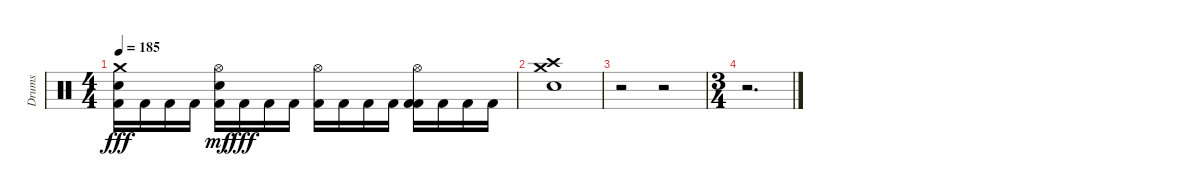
\track ("Drums" "Drums") {instrument percussion}
\staff {score}
\articulation defaults
\ts (4 4)
\tempo 185
\clef neutral
\ks c
("Crash medium (hit)" "Electric Snare (hit)" "Kick (hit) 2").16{dy fff} "Kick (hit) 2".16 "Kick (hit) 2".16 "Kick (hit) 2".16 ("Hi-Hat (open)" "Electric Snare (hit)" "Kick (hit) 2").16{dy mf} "Kick (hit) 2".16{dy fff} "Kick (hit) 2".16 "Kick (hit) 2".16 ("Hi-Hat (open)" "Kick (hit) 2").16 "Kick (hit) 2".16 "Kick (hit) 2".16 "Kick (hit) 2".16 ("Hi-Hat (open)" "Kick (hit) 2" "Kick (hit) 2").16 "Kick (hit) 2".16 "Kick (hit) 2".16 "Kick (hit) 2".16 |
("Crash high (hit)" "Crash medium (hit)" "Electric Snare (hit)").1 |
r.2 r.2 |
\ts (3 4)
r.2{d}
